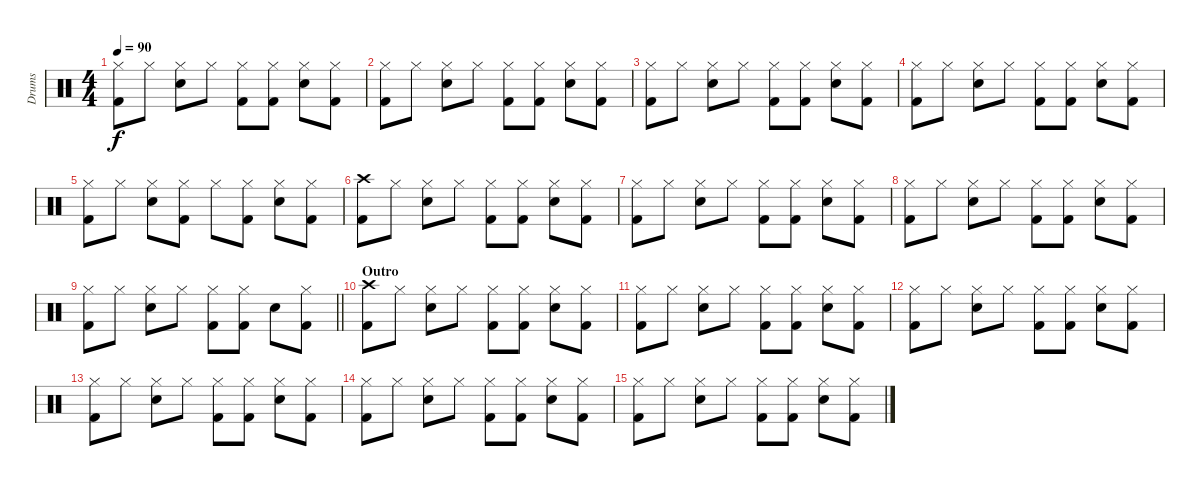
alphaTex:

\track ("Drums" "Drums") {instrument percussion}
\staff {score}
\articulation defaults
\ts (4 4)
\tempo 90
\clef neutral
\ks c
("Hi-Hat (closed)" "Kick (hit) 2").8{dy f} "Hi-Hat (closed)".8 ("Hi-Hat (closed)" "Snare (hit) 2").8 "Hi-Hat (closed)".8 ("Hi-Hat (closed)" "Kick (hit) 2").8 ("Hi-Hat (closed)" "Kick (hit) 2").8 ("Hi-Hat (closed)" "Snare (hit) 2").8 ("Hi-Hat (closed)" "Kick (hit) 2").8 |
("Hi-Hat (closed)" "Kick (hit) 2").8 "Hi-Hat (closed)".8 ("Hi-Hat (closed)" "Snare (hit) 2").8 "Hi-Hat (closed)".8 ("Hi-Hat (closed)" "Kick (hit) 2").8 ("Hi-Hat (closed)" "Kick (hit) 2").8 ("Hi-Hat (closed)" "Snare (hit) 2").8 ("Hi-Hat (closed)" "Kick (hit) 2").8 |
("Hi-Hat (closed)" "Kick (hit) 2").8 "Hi-Hat (closed)".8 ("Hi-Hat (closed)" "Snare (hit) 2").8 "Hi-Hat (closed)".8 ("Hi-Hat (closed)" "Kick (hit) 2").8 ("Hi-Hat (closed)" "Kick (hit) 2").8 ("Hi-Hat (closed)" "Snare (hit) 2").8 ("Hi-Hat (closed)" "Kick (hit) 2").8 |
("Hi-Hat (closed)" "Kick (hit) 2").8 "Hi-Hat (closed)".8 ("Hi-Hat (closed)" "Snare (hit) 2").8 "Hi-Hat (closed)".8 ("Hi-Hat (closed)" "Kick (hit) 2").8 ("Hi-Hat (closed)" "Kick (hit) 2").8 ("Hi-Hat (closed)" "Snare (hit) 2").8 ("Hi-Hat (closed)" "Kick (hit) 2").8 |
("Hi-Hat (closed)" "Kick (hit) 2").8 "Hi-Hat (closed)".8 ("Hi-Hat (closed)" "Snare (hit) 2").8 ("Hi-Hat (closed)" "Kick (hit) 2").8 "Hi-Hat (closed)".8 ("Hi-Hat (closed)" "Kick (hit) 2").8 ("Hi-Hat (closed)" "Snare (hit) 2").8 ("Hi-Hat (closed)" "Kick (hit) 2").8 |
("Crash high (hit)" "Kick (hit) 2").8 "Hi-Hat (closed)".8 ("Hi-Hat (closed)" "Snare (hit) 2").8 "Hi-Hat (closed)".8 ("Hi-Hat (closed)" "Kick (hit) 2").8 ("Hi-Hat (closed)" "Kick (hit) 2").8 ("Hi-Hat (closed)" "Snare (hit) 2").8 ("Hi-Hat (closed)" "Kick (hit) 2").8 |
("Hi-Hat (closed)" "Kick (hit) 2").8 "Hi-Hat (closed)".8 ("Hi-Hat (closed)" "Snare (hit) 2").8 "Hi-Hat (closed)".8 ("Hi-Hat (closed)" "Kick (hit) 2").8 ("Hi-Hat (closed)" "Kick (hit) 2").8 ("Hi-Hat (closed)" "Snare (hit) 2").8 ("Hi-Hat (closed)" "Kick (hit) 2").8 |
("Hi-Hat (closed)" "Kick (hit) 2").8 "Hi-Hat (closed)".8 ("Hi-Hat (closed)" "Snare (hit) 2").8 "Hi-Hat (closed)".8 ("Hi-Hat (closed)" "Kick (hit) 2").8 ("Hi-Hat (closed)" "Kick (hit) 2").8 ("Hi-Hat (closed)" "Snare (hit) 2").8 ("Hi-Hat (closed)" "Kick (hit) 2").8 |
\barLineRight lightlight
("Hi-Hat (closed)" "Kick (hit) 2").8 "Hi-Hat (closed)".8 ("Hi-Hat (closed)" "Snare (hit) 2").8 "Hi-Hat (closed)".8 ("Hi-Hat (closed)" "Kick (hit) 2").8 ("Hi-Hat (closed)" "Kick (hit) 2").8 "Snare (hit) 2".8 ("Hi-Hat (closed)" "Kick (hit) 2").8 |
\section ("" "Outro")
("Crash high (hit)" "Kick (hit) 2").8 "Hi-Hat (closed)".8 ("Hi-Hat (closed)" "Snare (hit) 2").8 "Hi-Hat (closed)".8 ("Hi-Hat (closed)" "Kick (hit) 2").8 ("Hi-Hat (closed)" "Kick (hit) 2").8 ("Hi-Hat (closed)" "Snare (hit) 2").8 ("Hi-Hat (closed)" "Kick (hit) 2").8 |
("Hi-Hat (closed)" "Kick (hit) 2").8 "Hi-Hat (closed)".8 ("Hi-Hat (closed)" "Snare (hit) 2").8 "Hi-Hat (closed)".8 ("Hi-Hat (closed)" "Kick (hit) 2").8 ("Hi-Hat (closed)" "Kick (hit) 2").8 ("Hi-Hat (closed)" "Snare (hit) 2").8 ("Hi-Hat (closed)" "Kick (hit) 2").8 |
("Hi-Hat (closed)" "Kick (hit) 2").8 "Hi-Hat (closed)".8 ("Hi-Hat (closed)" "Snare (hit) 2").8 "Hi-Hat (closed)".8 ("Hi-Hat (closed)" "Kick (hit) 2").8 ("Hi-Hat (closed)" "Kick (hit) 2").8 ("Hi-Hat (closed)" "Snare (hit) 2").8 ("Hi-Hat (closed)" "Kick (hit) 2").8 |
("Hi-Hat (closed)" "Kick (hit) 2").8 "Hi-Hat (closed)".8 ("Hi-Hat (closed)" "Snare (hit) 2").8 "Hi-Hat (closed)".8 ("Hi-Hat (closed)" "Kick (hit) 2").8 ("Hi-Hat (closed)" "Kick (hit) 2").8 ("Hi-Hat (closed)" "Snare (hit) 2").8 ("Hi-Hat (closed)" "Kick (hit) 2").8 |
("Hi-Hat (closed)" "Kick (hit) 2").8 "Hi-Hat (closed)".8 ("Hi-Hat (closed)" "Snare (hit) 2").8 "Hi-Hat (closed)".8 ("Hi-Hat (closed)" "Kick (hit) 2").8 ("Hi-Hat (closed)" "Kick (hit) 2").8 ("Hi-Hat (closed)" "Snare (hit) 2").8 ("Hi-Hat (closed)" "Kick (hit) 2").8 |
("Hi-Hat (closed)" "Kick (hit) 2").8 "Hi-Hat (closed)".8 ("Hi-Hat (closed)" "Snare (hit) 2").8 "Hi-Hat (closed)".8 ("Hi-Hat (closed)" "Kick (hit) 2").8 ("Hi-Hat (closed)" "Kick (hit) 2").8 ("Hi-Hat (closed)" "Snare (hit) 2").8 ("Hi-Hat (closed)" "Kick (hit) 2").8
